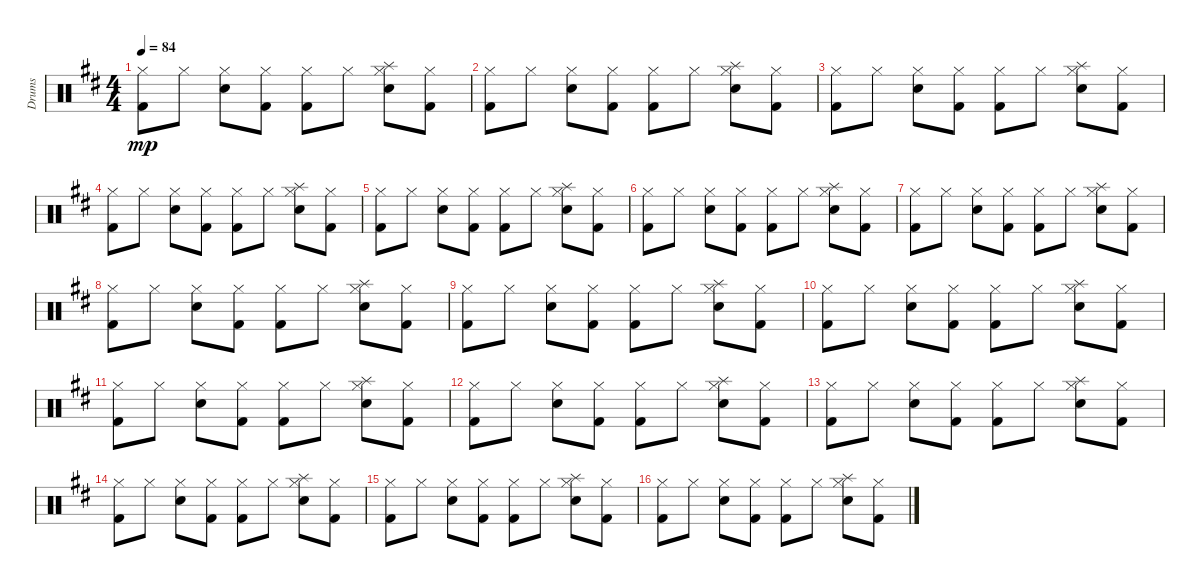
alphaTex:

\track ("Drums" "Drums") {instrument percussion}
\staff {score}
\articulation defaults
\ts (4 4)
\tempo 84
\clef neutral
\ks d
("Hi-Hat (closed)" "Kick (hit) 2").8{dy mp} "Hi-Hat (closed)".8 ("Hi-Hat (closed)" "Snare (hit) 2").8 ("Hi-Hat (closed)" "Kick (hit) 2").8 ("Hi-Hat (closed)" "Kick (hit) 2").8 "Hi-Hat (closed)".8 ("Splash (hit)" "Hi-Hat (closed)" "Snare (hit) 2").8 ("Hi-Hat (closed)" "Kick (hit) 2").8 |
("Hi-Hat (closed)" "Kick (hit) 2").8 "Hi-Hat (closed)".8 ("Hi-Hat (closed)" "Snare (hit) 2").8 ("Hi-Hat (closed)" "Kick (hit) 2").8 ("Hi-Hat (closed)" "Kick (hit) 2").8 "Hi-Hat (closed)".8 ("Splash (hit)" "Hi-Hat (closed)" "Snare (hit) 2").8 ("Hi-Hat (closed)" "Kick (hit) 2").8 |
("Hi-Hat (closed)" "Kick (hit) 2").8 "Hi-Hat (closed)".8 ("Hi-Hat (closed)" "Snare (hit) 2").8 ("Hi-Hat (closed)" "Kick (hit) 2").8 ("Hi-Hat (closed)" "Kick (hit) 2").8 "Hi-Hat (closed)".8 ("Splash (hit)" "Hi-Hat (closed)" "Snare (hit) 2").8 ("Hi-Hat (closed)" "Kick (hit) 2").8 |
("Hi-Hat (closed)" "Kick (hit) 2").8 "Hi-Hat (closed)".8 ("Hi-Hat (closed)" "Snare (hit) 2").8 ("Hi-Hat (closed)" "Kick (hit) 2").8 ("Hi-Hat (closed)" "Kick (hit) 2").8 "Hi-Hat (closed)".8 ("Splash (hit)" "Hi-Hat (closed)" "Snare (hit) 2").8 ("Hi-Hat (closed)" "Kick (hit) 2").8 |
("Hi-Hat (closed)" "Kick (hit) 2").8 "Hi-Hat (closed)".8 ("Hi-Hat (closed)" "Snare (hit) 2").8 ("Hi-Hat (closed)" "Kick (hit) 2").8 ("Hi-Hat (closed)" "Kick (hit) 2").8 "Hi-Hat (closed)".8 ("Splash (hit)" "Hi-Hat (closed)" "Snare (hit) 2").8 ("Hi-Hat (closed)" "Kick (hit) 2").8 |
("Hi-Hat (closed)" "Kick (hit) 2").8 "Hi-Hat (closed)".8 ("Hi-Hat (closed)" "Snare (hit) 2").8 ("Hi-Hat (closed)" "Kick (hit) 2").8 ("Hi-Hat (closed)" "Kick (hit) 2").8 "Hi-Hat (closed)".8 ("Splash (hit)" "Hi-Hat (closed)" "Snare (hit) 2").8 ("Hi-Hat (closed)" "Kick (hit) 2").8 |
("Hi-Hat (closed)" "Kick (hit) 2").8 "Hi-Hat (closed)".8 ("Hi-Hat (closed)" "Snare (hit) 2").8 ("Hi-Hat (closed)" "Kick (hit) 2").8 ("Hi-Hat (closed)" "Kick (hit) 2").8 "Hi-Hat (closed)".8 ("Splash (hit)" "Hi-Hat (closed)" "Snare (hit) 2").8 ("Hi-Hat (closed)" "Kick (hit) 2").8 |
("Hi-Hat (closed)" "Kick (hit) 2").8 "Hi-Hat (closed)".8 ("Hi-Hat (closed)" "Snare (hit) 2").8 ("Hi-Hat (closed)" "Kick (hit) 2").8 ("Hi-Hat (closed)" "Kick (hit) 2").8 "Hi-Hat (closed)".8 ("Splash (hit)" "Hi-Hat (closed)" "Snare (hit) 2").8 ("Hi-Hat (closed)" "Kick (hit) 2").8 |
("Hi-Hat (closed)" "Kick (hit) 2").8 "Hi-Hat (closed)".8 ("Hi-Hat (closed)" "Snare (hit) 2").8 ("Hi-Hat (closed)" "Kick (hit) 2").8 ("Hi-Hat (closed)" "Kick (hit) 2").8 "Hi-Hat (closed)".8 ("Splash (hit)" "Hi-Hat (closed)" "Snare (hit) 2").8 ("Hi-Hat (closed)" "Kick (hit) 2").8 |
("Hi-Hat (closed)" "Kick (hit) 2").8{volume 10} "Hi-Hat (closed)".8 ("Hi-Hat (closed)" "Snare (hit) 2").8 ("Hi-Hat (closed)" "Kick (hit) 2").8 ("Hi-Hat (closed)" "Kick (hit) 2").8 "Hi-Hat (closed)".8 ("Splash (hit)" "Hi-Hat (closed)" "Snare (hit) 2").8 ("Hi-Hat (closed)" "Kick (hit) 2").8 |
("Hi-Hat (closed)" "Kick (hit) 2").8 "Hi-Hat (closed)".8 ("Hi-Hat (closed)" "Snare (hit) 2").8 ("Hi-Hat (closed)" "Kick (hit) 2").8 ("Hi-Hat (closed)" "Kick (hit) 2").8 "Hi-Hat (closed)".8 ("Splash (hit)" "Hi-Hat (closed)" "Snare (hit) 2").8 ("Hi-Hat (closed)" "Kick (hit) 2").8 |
("Hi-Hat (closed)" "Kick (hit) 2").8 "Hi-Hat (closed)".8 ("Hi-Hat (closed)" "Snare (hit) 2").8 ("Hi-Hat (closed)" "Kick (hit) 2").8 ("Hi-Hat (closed)" "Kick (hit) 2").8 "Hi-Hat (closed)".8 ("Splash (hit)" "Hi-Hat (closed)" "Snare (hit) 2").8 ("Hi-Hat (closed)" "Kick (hit) 2").8 |
("Hi-Hat (closed)" "Kick (hit) 2").8 "Hi-Hat (closed)".8 ("Hi-Hat (closed)" "Snare (hit) 2").8 ("Hi-Hat (closed)" "Kick (hit) 2").8 ("Hi-Hat (closed)" "Kick (hit) 2").8 "Hi-Hat (closed)".8 ("Splash (hit)" "Hi-Hat (closed)" "Snare (hit) 2").8 ("Hi-Hat (closed)" "Kick (hit) 2").8 |
("Hi-Hat (closed)" "Kick (hit) 2").8 "Hi-Hat (closed)".8 ("Hi-Hat (closed)" "Snare (hit) 2").8 ("Hi-Hat (closed)" "Kick (hit) 2").8 ("Hi-Hat (closed)" "Kick (hit) 2").8 "Hi-Hat (closed)".8 ("Splash (hit)" "Hi-Hat (closed)" "Snare (hit) 2").8 ("Hi-Hat (closed)" "Kick (hit) 2").8 |
("Hi-Hat (closed)" "Kick (hit) 2").8 "Hi-Hat (closed)".8 ("Hi-Hat (closed)" "Snare (hit) 2").8 ("Hi-Hat (closed)" "Kick (hit) 2").8 ("Hi-Hat (closed)" "Kick (hit) 2").8 "Hi-Hat (closed)".8 ("Splash (hit)" "Hi-Hat (closed)" "Snare (hit) 2").8 ("Hi-Hat (closed)" "Kick (hit) 2").8 |
("Hi-Hat (closed)" "Kick (hit) 2").8 "Hi-Hat (closed)".8 ("Hi-Hat (closed)" "Snare (hit) 2").8 ("Hi-Hat (closed)" "Kick (hit) 2").8 ("Hi-Hat (closed)" "Kick (hit) 2").8 "Hi-Hat (closed)".8 ("Splash (hit)" "Hi-Hat (closed)" "Snare (hit) 2").8 ("Hi-Hat (closed)" "Kick (hit) 2").8
